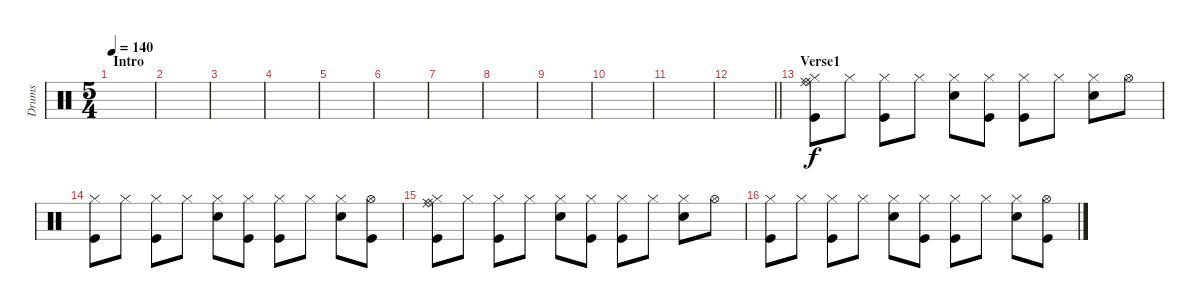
\track ("Drums" "Drums") {instrument percussion}
\staff {score}
\articulation defaults
\ts (5 4)
\section ("" "Intro")
\tempo 140
\clef neutral
\ks c
|
|
|
|
|
|
|
|
|
|
|
\barLineRight lightlight
|
\section ("" "Verse1")
("Kick (hit)" "Hi-Hat (closed)" "Ride (middle)" "Ride (bell)").8 "Hi-Hat (closed)".8 ("Kick (hit)" "Hi-Hat (closed)").8 "Hi-Hat (closed)".8 ("Snare (hit) 2" "Hi-Hat (closed)").8 ("Kick (hit)" "Hi-Hat (closed)").8 ("Kick (hit)" "Hi-Hat (closed)").8 "Hi-Hat (closed)".8 ("Snare (hit) 2" "Hi-Hat (closed)").8 "Hi-Hat (open)".8 |
("Kick (hit)" "Hi-Hat (closed)").8 "Hi-Hat (closed)".8 ("Kick (hit)" "Hi-Hat (closed)").8 "Hi-Hat (closed)".8 ("Snare (hit) 2" "Hi-Hat (closed)").8 ("Kick (hit)" "Hi-Hat (closed)").8 ("Kick (hit)" "Hi-Hat (closed)").8 "Hi-Hat (closed)".8 ("Snare (hit) 2" "Hi-Hat (closed)").8 ("Kick (hit)" "Hi-Hat (open)").8 |
("Kick (hit)" "Hi-Hat (closed)" "Ride (middle)" "Ride (bell)").8 "Hi-Hat (closed)".8 ("Kick (hit)" "Hi-Hat (closed)").8 "Hi-Hat (closed)".8 ("Snare (hit) 2" "Hi-Hat (closed)").8 ("Kick (hit)" "Hi-Hat (closed)").8 ("Kick (hit)" "Hi-Hat (closed)").8 "Hi-Hat (closed)".8 ("Snare (hit) 2" "Hi-Hat (closed)").8 "Hi-Hat (open)".8 |
("Kick (hit)" "Hi-Hat (closed)").8 "Hi-Hat (closed)".8 ("Kick (hit)" "Hi-Hat (closed)").8 "Hi-Hat (closed)".8 ("Snare (hit) 2" "Hi-Hat (closed)").8 ("Kick (hit)" "Hi-Hat (closed)").8 ("Kick (hit)" "Hi-Hat (closed)").8 "Hi-Hat (closed)".8 ("Snare (hit) 2" "Hi-Hat (closed)").8 ("Kick (hit)" "Hi-Hat (open)").8
